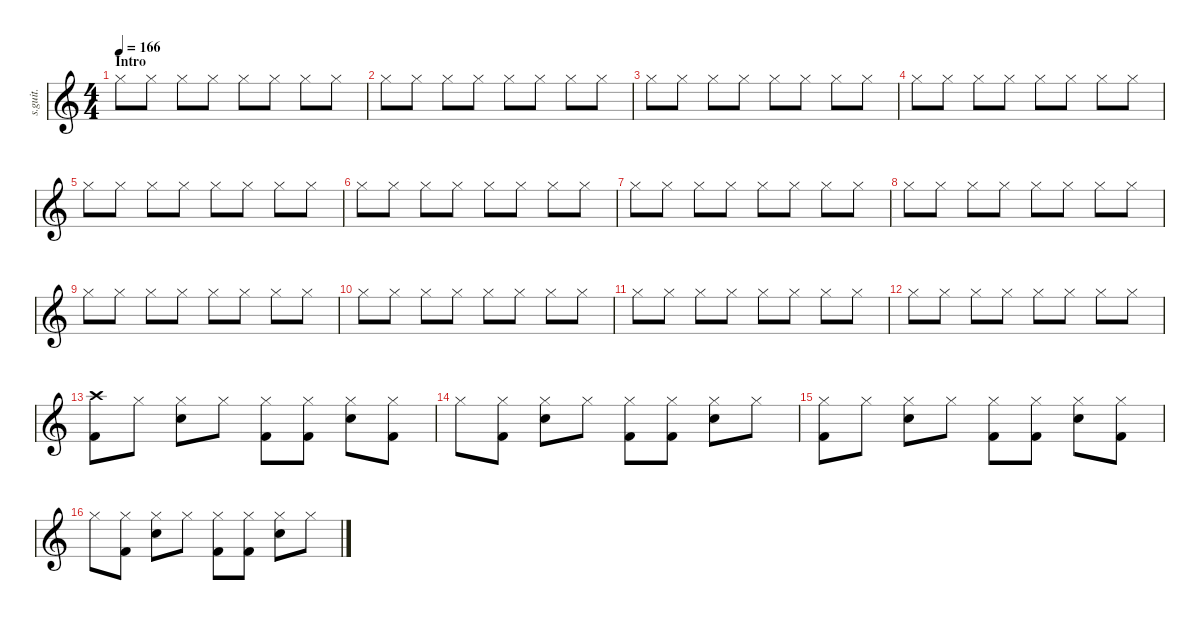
\defaultSystemsLayout 4
\hideDynamics
\bracketExtendMode nobrackets
\track ("Phil Selway" "s.guit.") {instrument percussion}
\staff {score}
\articulation defaults
\ts (4 4)
\beaming (8 2 2 2 2)
\section ("" "Intro")
\tempo 166
\clef g2
\ks c "Hi-Hat (closed)".8{lyrics (0 "") lyrics (1 "") lyrics (2 "") lyrics (3 "") lyrics (4 "") dy ff} "Hi-Hat (closed)".8{lyrics (0 "") lyrics (1 "") lyrics (2 "") lyrics (3 "") lyrics (4 "") dy mp} "Hi-Hat (closed)".8{lyrics (0 "") lyrics (1 "") lyrics (2 "") lyrics (3 "") lyrics (4 "") dy ff} "Hi-Hat (closed)".8{lyrics (0 "") lyrics (1 "") lyrics (2 "") lyrics (3 "") lyrics (4 "") dy mp} "Hi-Hat (closed)".8{lyrics (0 "") lyrics (1 "") lyrics (2 "") lyrics (3 "") lyrics (4 "") dy ff} "Hi-Hat (closed)".8{lyrics (0 "") lyrics (1 "") lyrics (2 "") lyrics (3 "") lyrics (4 "") dy mp} "Hi-Hat (closed)".8{lyrics (0 "") lyrics (1 "") lyrics (2 "") lyrics (3 "") lyrics (4 "") dy ff} "Hi-Hat (closed)".8{lyrics (0 "") lyrics (1 "") lyrics (2 "") lyrics (3 "") lyrics (4 "") dy mp}
|
"Hi-Hat (closed)".8{lyrics (0 "") lyrics (1 "") lyrics (2 "") lyrics (3 "") lyrics (4 "") dy ff} "Hi-Hat (closed)".8{lyrics (0 "") lyrics (1 "") lyrics (2 "") lyrics (3 "") lyrics (4 "") dy mp} "Hi-Hat (closed)".8{lyrics (0 "") lyrics (1 "") lyrics (2 "") lyrics (3 "") lyrics (4 "") dy ff} "Hi-Hat (closed)".8{lyrics (0 "") lyrics (1 "") lyrics (2 "") lyrics (3 "") lyrics (4 "") dy mp} "Hi-Hat (closed)".8{lyrics (0 "") lyrics (1 "") lyrics (2 "") lyrics (3 "") lyrics (4 "") dy ff} "Hi-Hat (closed)".8{lyrics (0 "") lyrics (1 "") lyrics (2 "") lyrics (3 "") lyrics (4 "") dy mp} "Hi-Hat (closed)".8{lyrics (0 "") lyrics (1 "") lyrics (2 "") lyrics (3 "") lyrics (4 "") dy ff} "Hi-Hat (closed)".8{lyrics (0 "") lyrics (1 "") lyrics (2 "") lyrics (3 "") lyrics (4 "") dy mp} |
"Hi-Hat (closed)".8{lyrics (0 "") lyrics (1 "") lyrics (2 "") lyrics (3 "") lyrics (4 "") dy ff} "Hi-Hat (closed)".8{lyrics (0 "") lyrics (1 "") lyrics (2 "") lyrics (3 "") lyrics (4 "") dy mp} "Hi-Hat (closed)".8{lyrics (0 "") lyrics (1 "") lyrics (2 "") lyrics (3 "") lyrics (4 "") dy ff} "Hi-Hat (closed)".8{lyrics (0 "") lyrics (1 "") lyrics (2 "") lyrics (3 "") lyrics (4 "") dy mp} "Hi-Hat (closed)".8{lyrics (0 "") lyrics (1 "") lyrics (2 "") lyrics (3 "") lyrics (4 "") dy ff} "Hi-Hat (closed)".8{lyrics (0 "") lyrics (1 "") lyrics (2 "") lyrics (3 "") lyrics (4 "") dy mp} "Hi-Hat (closed)".8{lyrics (0 "") lyrics (1 "") lyrics (2 "") lyrics (3 "") lyrics (4 "") dy ff} "Hi-Hat (closed)".8{lyrics (0 "") lyrics (1 "") lyrics (2 "") lyrics (3 "") lyrics (4 "") dy mp} |
"Hi-Hat (closed)".8{lyrics (0 "") lyrics (1 "") lyrics (2 "") lyrics (3 "") lyrics (4 "") dy ff} "Hi-Hat (closed)".8{lyrics (0 "") lyrics (1 "") lyrics (2 "") lyrics (3 "") lyrics (4 "") dy mp} "Hi-Hat (closed)".8{lyrics (0 "") lyrics (1 "") lyrics (2 "") lyrics (3 "") lyrics (4 "") dy ff} "Hi-Hat (closed)".8{lyrics (0 "") lyrics (1 "") lyrics (2 "") lyrics (3 "") lyrics (4 "") dy mp} "Hi-Hat (closed)".8{lyrics (0 "") lyrics (1 "") lyrics (2 "") lyrics (3 "") lyrics (4 "") dy ff} "Hi-Hat (closed)".8{lyrics (0 "") lyrics (1 "") lyrics (2 "") lyrics (3 "") lyrics (4 "") dy mp} "Hi-Hat (closed)".8{lyrics (0 "") lyrics (1 "") lyrics (2 "") lyrics (3 "") lyrics (4 "") dy ff} "Hi-Hat (closed)".8{lyrics (0 "") lyrics (1 "") lyrics (2 "") lyrics (3 "") lyrics (4 "") dy mp} |
"Hi-Hat (closed)".8{lyrics (0 "") lyrics (1 "") lyrics (2 "") lyrics (3 "") lyrics (4 "") dy ff} "Hi-Hat (closed)".8{lyrics (0 "") lyrics (1 "") lyrics (2 "") lyrics (3 "") lyrics (4 "") dy mp} "Hi-Hat (closed)".8{lyrics (0 "") lyrics (1 "") lyrics (2 "") lyrics (3 "") lyrics (4 "") dy ff} "Hi-Hat (closed)".8{lyrics (0 "") lyrics (1 "") lyrics (2 "") lyrics (3 "") lyrics (4 "") dy mp} "Hi-Hat (closed)".8{lyrics (0 "") lyrics (1 "") lyrics (2 "") lyrics (3 "") lyrics (4 "") dy ff} "Hi-Hat (closed)".8{lyrics (0 "") lyrics (1 "") lyrics (2 "") lyrics (3 "") lyrics (4 "") dy mp} "Hi-Hat (closed)".8{lyrics (0 "") lyrics (1 "") lyrics (2 "") lyrics (3 "") lyrics (4 "") dy ff} "Hi-Hat (closed)".8{lyrics (0 "") lyrics (1 "") lyrics (2 "") lyrics (3 "") lyrics (4 "") dy mp} |
"Hi-Hat (closed)".8{lyrics (0 "") lyrics (1 "") lyrics (2 "") lyrics (3 "") lyrics (4 "") dy ff} "Hi-Hat (closed)".8{lyrics (0 "") lyrics (1 "") lyrics (2 "") lyrics (3 "") lyrics (4 "") dy mp} "Hi-Hat (closed)".8{lyrics (0 "") lyrics (1 "") lyrics (2 "") lyrics (3 "") lyrics (4 "") dy ff} "Hi-Hat (closed)".8{lyrics (0 "") lyrics (1 "") lyrics (2 "") lyrics (3 "") lyrics (4 "") dy mp} "Hi-Hat (closed)".8{lyrics (0 "") lyrics (1 "") lyrics (2 "") lyrics (3 "") lyrics (4 "") dy ff} "Hi-Hat (closed)".8{lyrics (0 "") lyrics (1 "") lyrics (2 "") lyrics (3 "") lyrics (4 "") dy mp} "Hi-Hat (closed)".8{lyrics (0 "") lyrics (1 "") lyrics (2 "") lyrics (3 "") lyrics (4 "") dy ff} "Hi-Hat (closed)".8{lyrics (0 "") lyrics (1 "") lyrics (2 "") lyrics (3 "") lyrics (4 "") dy mp} |
"Hi-Hat (closed)".8{lyrics (0 "") lyrics (1 "") lyrics (2 "") lyrics (3 "") lyrics (4 "") dy ff} "Hi-Hat (closed)".8{lyrics (0 "") lyrics (1 "") lyrics (2 "") lyrics (3 "") lyrics (4 "") dy mp} "Hi-Hat (closed)".8{lyrics (0 "") lyrics (1 "") lyrics (2 "") lyrics (3 "") lyrics (4 "") dy ff} "Hi-Hat (closed)".8{lyrics (0 "") lyrics (1 "") lyrics (2 "") lyrics (3 "") lyrics (4 "") dy mp} "Hi-Hat (closed)".8{lyrics (0 "") lyrics (1 "") lyrics (2 "") lyrics (3 "") lyrics (4 "") dy ff} "Hi-Hat (closed)".8{lyrics (0 "") lyrics (1 "") lyrics (2 "") lyrics (3 "") lyrics (4 "") dy mp} "Hi-Hat (closed)".8{lyrics (0 "") lyrics (1 "") lyrics (2 "") lyrics (3 "") lyrics (4 "") dy ff} "Hi-Hat (closed)".8{lyrics (0 "") lyrics (1 "") lyrics (2 "") lyrics (3 "") lyrics (4 "") dy mp} |
"Hi-Hat (closed)".8{lyrics (0 "") lyrics (1 "") lyrics (2 "") lyrics (3 "") lyrics (4 "") dy ff} "Hi-Hat (closed)".8{lyrics (0 "") lyrics (1 "") lyrics (2 "") lyrics (3 "") lyrics (4 "") dy mp} "Hi-Hat (closed)".8{lyrics (0 "") lyrics (1 "") lyrics (2 "") lyrics (3 "") lyrics (4 "") dy ff} "Hi-Hat (closed)".8{lyrics (0 "") lyrics (1 "") lyrics (2 "") lyrics (3 "") lyrics (4 "") dy mp} "Hi-Hat (closed)".8{lyrics (0 "") lyrics (1 "") lyrics (2 "") lyrics (3 "") lyrics (4 "") dy ff} "Hi-Hat (closed)".8{lyrics (0 "") lyrics (1 "") lyrics (2 "") lyrics (3 "") lyrics (4 "") dy mp} "Hi-Hat (closed)".8{lyrics (0 "") lyrics (1 "") lyrics (2 "") lyrics (3 "") lyrics (4 "") dy ff} "Hi-Hat (closed)".8{lyrics (0 "") lyrics (1 "") lyrics (2 "") lyrics (3 "") lyrics (4 "") dy mp} |
"Hi-Hat (closed)".8{lyrics (0 "") lyrics (1 "") lyrics (2 "") lyrics (3 "") lyrics (4 "") dy ff} "Hi-Hat (closed)".8{lyrics (0 "") lyrics (1 "") lyrics (2 "") lyrics (3 "") lyrics (4 "") dy mp} "Hi-Hat (closed)".8{lyrics (0 "") lyrics (1 "") lyrics (2 "") lyrics (3 "") lyrics (4 "") dy ff} "Hi-Hat (closed)".8{lyrics (0 "") lyrics (1 "") lyrics (2 "") lyrics (3 "") lyrics (4 "") dy mp} "Hi-Hat (closed)".8{lyrics (0 "") lyrics (1 "") lyrics (2 "") lyrics (3 "") lyrics (4 "") dy ff} "Hi-Hat (closed)".8{lyrics (0 "") lyrics (1 "") lyrics (2 "") lyrics (3 "") lyrics (4 "") dy mp} "Hi-Hat (closed)".8{lyrics (0 "") lyrics (1 "") lyrics (2 "") lyrics (3 "") lyrics (4 "") dy ff} "Hi-Hat (closed)".8{lyrics (0 "") lyrics (1 "") lyrics (2 "") lyrics (3 "") lyrics (4 "") dy mp} |
"Hi-Hat (closed)".8{lyrics (0 "") lyrics (1 "") lyrics (2 "") lyrics (3 "") lyrics (4 "") dy ff} "Hi-Hat (closed)".8{lyrics (0 "") lyrics (1 "") lyrics (2 "") lyrics (3 "") lyrics (4 "") dy mp} "Hi-Hat (closed)".8{lyrics (0 "") lyrics (1 "") lyrics (2 "") lyrics (3 "") lyrics (4 "") dy ff} "Hi-Hat (closed)".8{lyrics (0 "") lyrics (1 "") lyrics (2 "") lyrics (3 "") lyrics (4 "") dy mp} "Hi-Hat (closed)".8{lyrics (0 "") lyrics (1 "") lyrics (2 "") lyrics (3 "") lyrics (4 "") dy ff} "Hi-Hat (closed)".8{lyrics (0 "") lyrics (1 "") lyrics (2 "") lyrics (3 "") lyrics (4 "") dy mp} "Hi-Hat (closed)".8{lyrics (0 "") lyrics (1 "") lyrics (2 "") lyrics (3 "") lyrics (4 "") dy ff} "Hi-Hat (closed)".8{lyrics (0 "") lyrics (1 "") lyrics (2 "") lyrics (3 "") lyrics (4 "") dy mp} |
"Hi-Hat (closed)".8{lyrics (0 "") lyrics (1 "") lyrics (2 "") lyrics (3 "") lyrics (4 "") dy ff} "Hi-Hat (closed)".8{lyrics (0 "") lyrics (1 "") lyrics (2 "") lyrics (3 "") lyrics (4 "") dy mp} "Hi-Hat (closed)".8{lyrics (0 "") lyrics (1 "") lyrics (2 "") lyrics (3 "") lyrics (4 "") dy ff} "Hi-Hat (closed)".8{lyrics (0 "") lyrics (1 "") lyrics (2 "") lyrics (3 "") lyrics (4 "") dy mp} "Hi-Hat (closed)".8{lyrics (0 "") lyrics (1 "") lyrics (2 "") lyrics (3 "") lyrics (4 "") dy ff} "Hi-Hat (closed)".8{lyrics (0 "") lyrics (1 "") lyrics (2 "") lyrics (3 "") lyrics (4 "") dy mp} "Hi-Hat (closed)".8{lyrics (0 "") lyrics (1 "") lyrics (2 "") lyrics (3 "") lyrics (4 "") dy ff} "Hi-Hat (closed)".8{lyrics (0 "") lyrics (1 "") lyrics (2 "") lyrics (3 "") lyrics (4 "") dy mp} |
"Hi-Hat (closed)".8{lyrics (0 "") lyrics (1 "") lyrics (2 "") lyrics (3 "") lyrics (4 "") dy ff} "Hi-Hat (closed)".8{lyrics (0 "") lyrics (1 "") lyrics (2 "") lyrics (3 "") lyrics (4 "") dy mp} "Hi-Hat (closed)".8{lyrics (0 "") lyrics (1 "") lyrics (2 "") lyrics (3 "") lyrics (4 "") dy ff} "Hi-Hat (closed)".8{lyrics (0 "") lyrics (1 "") lyrics (2 "") lyrics (3 "") lyrics (4 "") dy mp} "Hi-Hat (closed)".8{lyrics (0 "") lyrics (1 "") lyrics (2 "") lyrics (3 "") lyrics (4 "") dy ff} "Hi-Hat (closed)".8{lyrics (0 "") lyrics (1 "") lyrics (2 "") lyrics (3 "") lyrics (4 "") dy mp} "Hi-Hat (closed)".8{lyrics (0 "") lyrics (1 "") lyrics (2 "") lyrics (3 "") lyrics (4 "") dy ff} "Hi-Hat (closed)".8{lyrics (0 "") lyrics (1 "") lyrics (2 "") lyrics (3 "") lyrics (4 "") dy mp} |
("Crash high (hit)" "Kick (hit) 2").8{lyrics (0 "") lyrics (1 "") lyrics (2 "") lyrics (3 "") lyrics (4 "") dy f} "Hi-Hat (closed)".8{lyrics (0 "") lyrics (1 "") lyrics (2 "") lyrics (3 "") lyrics (4 "") dy mp} ("Hi-Hat (closed)" "Electric Snare (hit)").8{lyrics (0 "") lyrics (1 "") lyrics (2 "") lyrics (3 "") lyrics (4 "") dy f} "Hi-Hat (closed)".8{lyrics (0 "") lyrics (1 "") lyrics (2 "") lyrics (3 "") lyrics (4 "") dy mp} ("Hi-Hat (closed)" "Kick (hit) 2").8{lyrics (0 "") lyrics (1 "") lyrics (2 "") lyrics (3 "") lyrics (4 "") dy f} ("Hi-Hat (closed)" "Kick (hit) 2").8{lyrics (0 "") lyrics (1 "") lyrics (2 "") lyrics (3 "") lyrics (4 "")} ("Hi-Hat (closed)" "Electric Snare (hit)").8{lyrics (0 "") lyrics (1 "") lyrics (2 "") lyrics (3 "") lyrics (4 "")} ("Hi-Hat (closed)" "Kick (hit) 2").8{lyrics (0 "") lyrics (1 "") lyrics (2 "") lyrics (3 "") lyrics (4 "")} |
"Hi-Hat (closed)".8{lyrics (0 "") lyrics (1 "") lyrics (2 "") lyrics (3 "") lyrics (4 "") dy ff} ("Hi-Hat (closed)" "Kick (hit) 2").8{lyrics (0 "") lyrics (1 "") lyrics (2 "") lyrics (3 "") lyrics (4 "") dy f} ("Hi-Hat (closed)" "Electric Snare (hit)").8{lyrics (0 "") lyrics (1 "") lyrics (2 "") lyrics (3 "") lyrics (4 "")} "Hi-Hat (closed)".8{lyrics (0 "") lyrics (1 "") lyrics (2 "") lyrics (3 "") lyrics (4 "") dy mp} ("Hi-Hat (closed)" "Kick (hit) 2").8{lyrics (0 "") lyrics (1 "") lyrics (2 "") lyrics (3 "") lyrics (4 "") dy f} ("Hi-Hat (closed)" "Kick (hit) 2").8{lyrics (0 "") lyrics (1 "") lyrics (2 "") lyrics (3 "") lyrics (4 "")} ("Hi-Hat (closed)" "Electric Snare (hit)").8{lyrics (0 "") lyrics (1 "") lyrics (2 "") lyrics (3 "") lyrics (4 "")} "Hi-Hat (closed)".8{lyrics (0 "") lyrics (1 "") lyrics (2 "") lyrics (3 "") lyrics (4 "") dy mp} |
("Hi-Hat (closed)" "Kick (hit) 2").8{lyrics (0 "") lyrics (1 "") lyrics (2 "") lyrics (3 "") lyrics (4 "") dy f} "Hi-Hat (closed)".8{lyrics (0 "") lyrics (1 "") lyrics (2 "") lyrics (3 "") lyrics (4 "") dy mp} ("Hi-Hat (closed)" "Electric Snare (hit)").8{lyrics (0 "") lyrics (1 "") lyrics (2 "") lyrics (3 "") lyrics (4 "") dy f} "Hi-Hat (closed)".8{lyrics (0 "") lyrics (1 "") lyrics (2 "") lyrics (3 "") lyrics (4 "") dy mp} ("Hi-Hat (closed)" "Kick (hit) 2").8{lyrics (0 "") lyrics (1 "") lyrics (2 "") lyrics (3 "") lyrics (4 "") dy f} ("Hi-Hat (closed)" "Kick (hit) 2").8{lyrics (0 "") lyrics (1 "") lyrics (2 "") lyrics (3 "") lyrics (4 "")} ("Hi-Hat (closed)" "Electric Snare (hit)").8{lyrics (0 "") lyrics (1 "") lyrics (2 "") lyrics (3 "") lyrics (4 "")} ("Hi-Hat (closed)" "Kick (hit) 2").8{lyrics (0 "") lyrics (1 "") lyrics (2 "") lyrics (3 "") lyrics (4 "")} |
"Hi-Hat (closed)".8{lyrics (0 "") lyrics (1 "") lyrics (2 "") lyrics (3 "") lyrics (4 "") dy ff} ("Hi-Hat (closed)" "Kick (hit) 2").8{lyrics (0 "") lyrics (1 "") lyrics (2 "") lyrics (3 "") lyrics (4 "") dy f} ("Hi-Hat (closed)" "Electric Snare (hit)").8{lyrics (0 "") lyrics (1 "") lyrics (2 "") lyrics (3 "") lyrics (4 "")} "Hi-Hat (closed)".8{lyrics (0 "") lyrics (1 "") lyrics (2 "") lyrics (3 "") lyrics (4 "") dy mp} ("Hi-Hat (closed)" "Kick (hit) 2").8{lyrics (0 "") lyrics (1 "") lyrics (2 "") lyrics (3 "") lyrics (4 "") dy f} ("Hi-Hat (closed)" "Kick (hit) 2").8{lyrics (0 "") lyrics (1 "") lyrics (2 "") lyrics (3 "") lyrics (4 "")} ("Hi-Hat (closed)" "Electric Snare (hit)").8{lyrics (0 "") lyrics (1 "") lyrics (2 "") lyrics (3 "") lyrics (4 "")} "Hi-Hat (closed)".8{lyrics (0 "") lyrics (1 "") lyrics (2 "") lyrics (3 "") lyrics (4 "") dy mp}
